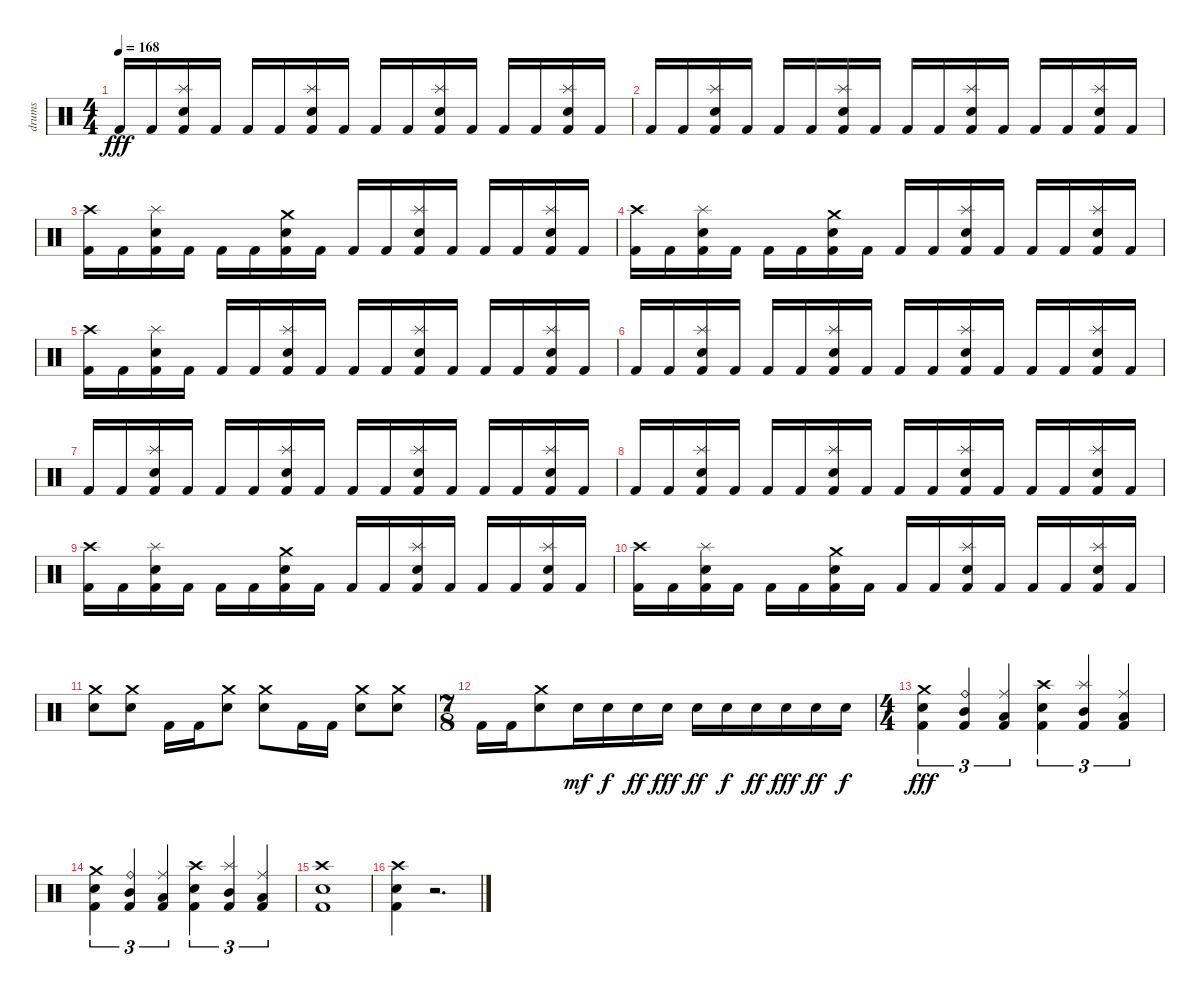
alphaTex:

\track ("drums" "drums") {instrument percussion}
\staff {score}
\articulation defaults
\ts (4 4)
\tempo 168
\clef neutral
\ks c "Kick (hit) 2".16{dy fff} "Kick (hit) 2".16
("Splash (hit)" "Snare (hit) 2" "Kick (hit) 2").16 "Kick (hit) 2".16 "Kick (hit) 2".16 "Kick (hit) 2".16 ("Splash (hit)" "Snare (hit) 2" "Kick (hit) 2").16 "Kick (hit) 2".16 "Kick (hit) 2".16 "Kick (hit) 2".16 ("Splash (hit)" "Snare (hit) 2" "Kick (hit) 2").16 "Kick (hit) 2".16 "Kick (hit) 2".16 "Kick (hit) 2".16 ("Splash (hit)" "Snare (hit) 2" "Kick (hit) 2").16 "Kick (hit) 2".16 |
"Kick (hit) 2".16 "Kick (hit) 2".16 ("Splash (hit)" "Snare (hit) 2" "Kick (hit) 2").16 "Kick (hit) 2".16 "Kick (hit) 2".16 "Kick (hit) 2".16 ("Splash (hit)" "Snare (hit) 2" "Kick (hit) 2").16 "Kick (hit) 2".16 "Kick (hit) 2".16 "Kick (hit) 2".16 ("Splash (hit)" "Snare (hit) 2" "Kick (hit) 2").16 "Kick (hit) 2".16 "Kick (hit) 2".16 "Kick (hit) 2".16 ("Splash (hit)" "Snare (hit) 2" "Kick (hit) 2").16 "Kick (hit) 2".16 |
("Crash high (hit)" "Kick (hit) 2").16 "Kick (hit) 2".16 ("Splash (hit)" "Snare (hit) 2" "Kick (hit) 2").16 "Kick (hit) 2".16 "Kick (hit) 2".16 "Kick (hit) 2".16 ("Crash medium (hit)" "Snare (hit) 2" "Kick (hit) 2").16 "Kick (hit) 2".16 "Kick (hit) 2".16 "Kick (hit) 2".16 ("Splash (hit)" "Snare (hit) 2" "Kick (hit) 2").16 "Kick (hit) 2".16 "Kick (hit) 2".16 "Kick (hit) 2".16 ("Splash (hit)" "Snare (hit) 2" "Kick (hit) 2").16 "Kick (hit) 2".16 |
("Crash high (hit)" "Kick (hit) 2").16 "Kick (hit) 2".16 ("Splash (hit)" "Snare (hit) 2" "Kick (hit) 2").16 "Kick (hit) 2".16 "Kick (hit) 2".16 "Kick (hit) 2".16 ("Crash medium (hit)" "Snare (hit) 2" "Kick (hit) 2").16 "Kick (hit) 2".16 "Kick (hit) 2".16 "Kick (hit) 2".16 ("Splash (hit)" "Snare (hit) 2" "Kick (hit) 2").16 "Kick (hit) 2".16 "Kick (hit) 2".16 "Kick (hit) 2".16 ("Splash (hit)" "Snare (hit) 2" "Kick (hit) 2").16 "Kick (hit) 2".16 |
("Crash high (hit)" "Kick (hit) 2").16 "Kick (hit) 2".16 ("Splash (hit)" "Snare (hit) 2" "Kick (hit) 2").16 "Kick (hit) 2".16 "Kick (hit) 2".16 "Kick (hit) 2".16 ("Splash (hit)" "Snare (hit) 2" "Kick (hit) 2").16 "Kick (hit) 2".16 "Kick (hit) 2".16 "Kick (hit) 2".16 ("Splash (hit)" "Snare (hit) 2" "Kick (hit) 2").16 "Kick (hit) 2".16 "Kick (hit) 2".16 "Kick (hit) 2".16 ("Splash (hit)" "Snare (hit) 2" "Kick (hit) 2").16 "Kick (hit) 2".16 |
"Kick (hit) 2".16 "Kick (hit) 2".16 ("Splash (hit)" "Snare (hit) 2" "Kick (hit) 2").16 "Kick (hit) 2".16 "Kick (hit) 2".16 "Kick (hit) 2".16 ("Splash (hit)" "Snare (hit) 2" "Kick (hit) 2").16 "Kick (hit) 2".16 "Kick (hit) 2".16 "Kick (hit) 2".16 ("Splash (hit)" "Snare (hit) 2" "Kick (hit) 2").16 "Kick (hit) 2".16 "Kick (hit) 2".16 "Kick (hit) 2".16 ("Splash (hit)" "Snare (hit) 2" "Kick (hit) 2").16 "Kick (hit) 2".16 |
"Kick (hit) 2".16 "Kick (hit) 2".16 ("Splash (hit)" "Snare (hit) 2" "Kick (hit) 2").16 "Kick (hit) 2".16 "Kick (hit) 2".16 "Kick (hit) 2".16 ("Splash (hit)" "Snare (hit) 2" "Kick (hit) 2").16 "Kick (hit) 2".16 "Kick (hit) 2".16 "Kick (hit) 2".16 ("Splash (hit)" "Snare (hit) 2" "Kick (hit) 2").16 "Kick (hit) 2".16 "Kick (hit) 2".16 "Kick (hit) 2".16 ("Splash (hit)" "Snare (hit) 2" "Kick (hit) 2").16 "Kick (hit) 2".16 |
"Kick (hit) 2".16 "Kick (hit) 2".16 ("Splash (hit)" "Snare (hit) 2" "Kick (hit) 2").16 "Kick (hit) 2".16 "Kick (hit) 2".16 "Kick (hit) 2".16 ("Splash (hit)" "Snare (hit) 2" "Kick (hit) 2").16 "Kick (hit) 2".16 "Kick (hit) 2".16 "Kick (hit) 2".16 ("Splash (hit)" "Snare (hit) 2" "Kick (hit) 2").16 "Kick (hit) 2".16 "Kick (hit) 2".16 "Kick (hit) 2".16 ("Splash (hit)" "Snare (hit) 2" "Kick (hit) 2").16 "Kick (hit) 2".16 |
("Crash high (hit)" "Kick (hit) 2").16 "Kick (hit) 2".16 ("Splash (hit)" "Snare (hit) 2" "Kick (hit) 2").16 "Kick (hit) 2".16 "Kick (hit) 2".16 "Kick (hit) 2".16 ("Crash medium (hit)" "Snare (hit) 2" "Kick (hit) 2").16 "Kick (hit) 2".16 "Kick (hit) 2".16 "Kick (hit) 2".16 ("Splash (hit)" "Snare (hit) 2" "Kick (hit) 2").16 "Kick (hit) 2".16 "Kick (hit) 2".16 "Kick (hit) 2".16 ("Splash (hit)" "Snare (hit) 2" "Kick (hit) 2").16 "Kick (hit) 2".16 |
("Crash high (hit)" "Kick (hit) 2").16 "Kick (hit) 2".16 ("Splash (hit)" "Snare (hit) 2" "Kick (hit) 2").16 "Kick (hit) 2".16 "Kick (hit) 2".16 "Kick (hit) 2".16 ("Crash medium (hit)" "Snare (hit) 2" "Kick (hit) 2").16 "Kick (hit) 2".16 "Kick (hit) 2".16 "Kick (hit) 2".16 ("Splash (hit)" "Snare (hit) 2" "Kick (hit) 2").16 "Kick (hit) 2".16 "Kick (hit) 2".16 "Kick (hit) 2".16 ("Splash (hit)" "Snare (hit) 2" "Kick (hit) 2").16 "Kick (hit) 2".16 |
("Crash medium (hit)" "Snare (hit) 2").8 ("Crash medium (hit)" "Snare (hit) 2").8 "Kick (hit) 2".16 "Kick (hit) 2".16 ("Crash medium (hit)" "Snare (hit) 2").8 ("Crash medium (hit)" "Snare (hit) 2").8 "Kick (hit) 2".16 "Kick (hit) 2".16 ("Crash medium (hit)" "Snare (hit) 2").8 ("Crash medium (hit)" "Snare (hit) 2").8 |
\ts (7 8)
"Kick (hit) 2".16 "Kick (hit) 2".16 ("Crash medium (hit)" "Snare (hit) 2").8 "Snare (hit) 2".16{dy mf} "Snare (hit) 2".16{dy f} "Snare (hit) 2".16{dy ff} "Snare (hit) 2".16{dy fff} "Snare (hit) 2".16{dy ff} "Snare (hit) 2".16{dy f} "Snare (hit) 2".16{dy ff} "Snare (hit) 2".16{dy fff} "Snare (hit) 2".16{dy ff} "Snare (hit) 2".16{dy f} |
\ts (4 4)
("Crash medium (hit)" "Snare (hit) 2" "Kick (hit) 2").4{tu (3 2) dy fff} ("Ride (bell)" "Mid Tom (hit)" "Kick (hit) 2").4{tu (3 2)} ("Ride (middle)" "Low Tom (hit)" "Kick (hit) 2").4{tu (3 2)} ("Crash high (hit)" "Snare (hit) 2" "Kick (hit) 2").4{tu (3 2)} ("Splash (hit)" "Mid Tom (hit)" "Kick (hit) 2").4{tu (3 2)} ("Ride (middle)" "Low Tom (hit)" "Kick (hit) 2").4{tu (3 2)} |
("Crash medium (hit)" "Snare (hit) 2" "Kick (hit) 2").4{tu (3 2)} ("Ride (bell)" "Mid Tom (hit)" "Kick (hit) 2").4{tu (3 2)} ("Ride (middle)" "Low Tom (hit)" "Kick (hit) 2").4{tu (3 2)} ("Crash high (hit)" "Snare (hit) 2" "Kick (hit) 2").4{tu (3 2)} ("Splash (hit)" "Mid Tom (hit)" "Kick (hit) 2").4{tu (3 2)} ("Ride (middle)" "Low Tom (hit)" "Kick (hit) 2").4{tu (3 2)} |
("Crash high (hit)" "Snare (hit) 2" "Kick (hit) 2").1 |
("Crash high (hit)" "Snare (hit) 2" "Kick (hit) 2").4 r.2{d}
